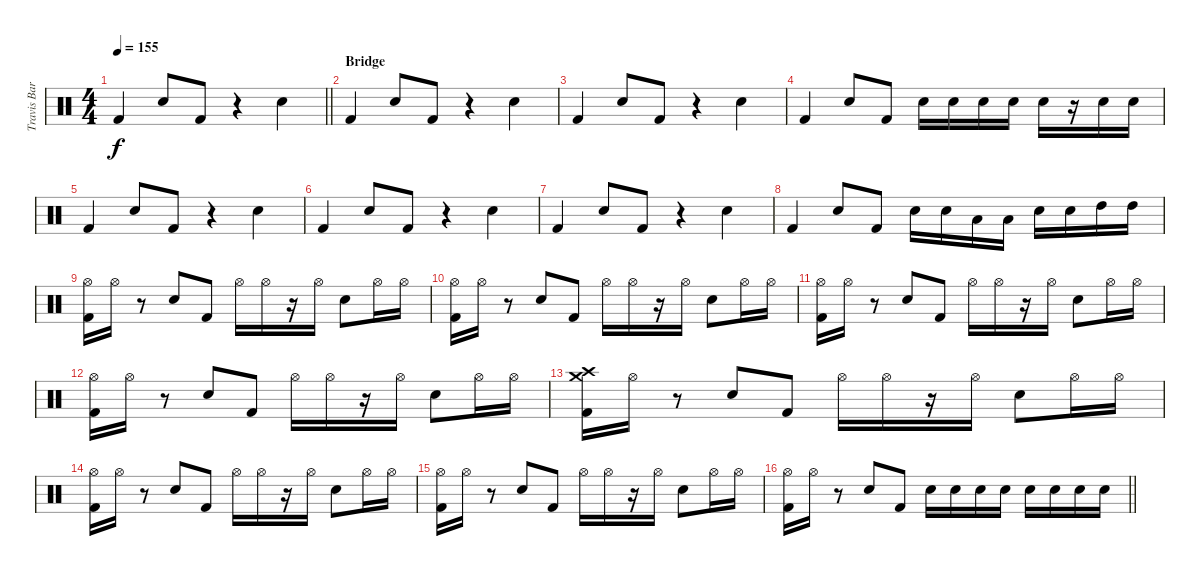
\track ("Travis Barker Drums" "Travis Bar") {mute instrument percussion}
\staff {score}
\articulation defaults
\ts (4 4)
\tempo 155
\clef neutral
\barLineRight lightlight
\ks c "Kick (hit) 2".4{dy f} "Electric Snare (hit)".8 "Kick (hit) 2".8
r.4 "Electric Snare (hit)".4 |
\section ("" "Bridge")
"Kick (hit) 2".4 "Electric Snare (hit)".8 "Kick (hit) 2".8 r.4 "Electric Snare (hit)".4 |
"Kick (hit) 2".4 "Electric Snare (hit)".8 "Kick (hit) 2".8 r.4 "Electric Snare (hit)".4 |
"Kick (hit) 2".4 "Electric Snare (hit)".8 "Kick (hit) 2".8 "Electric Snare (hit)".16 "Electric Snare (hit)".16 "Electric Snare (hit)".16 "Electric Snare (hit)".16 "Electric Snare (hit)".16 r.16 "Electric Snare (hit)".16 "Electric Snare (hit)".16 |
"Kick (hit) 2".4 "Electric Snare (hit)".8 "Kick (hit) 2".8 r.4 "Electric Snare (hit)".4 |
"Kick (hit) 2".4 "Electric Snare (hit)".8 "Kick (hit) 2".8 r.4 "Electric Snare (hit)".4 |
"Kick (hit) 2".4 "Electric Snare (hit)".8 "Kick (hit) 2".8 r.4 "Electric Snare (hit)".4 |
"Kick (hit) 2".4 "Electric Snare (hit)".8 "Kick (hit) 2".8 "Electric Snare (hit)".16 "Electric Snare (hit)".16 "Low Tom (hit)".16 "Low Tom (hit)".16 "Electric Snare (hit)".16 "Electric Snare (hit)".16 "High Tom (hit)".16 "High Tom (hit)".16 |
("Hi-Hat (open)" "Kick (hit) 2").16 "Hi-Hat (open)".16 r.8 "Electric Snare (hit)".8 "Kick (hit) 2".8 "Hi-Hat (open)".16 "Hi-Hat (open)".16 r.16 "Hi-Hat (open)".16 "Electric Snare (hit)".8 "Hi-Hat (open)".16 "Hi-Hat (open)".16 |
("Hi-Hat (open)" "Kick (hit) 2").16 "Hi-Hat (open)".16 r.8 "Electric Snare (hit)".8 "Kick (hit) 2".8 "Hi-Hat (open)".16 "Hi-Hat (open)".16 r.16 "Hi-Hat (open)".16 "Electric Snare (hit)".8 "Hi-Hat (open)".16 "Hi-Hat (open)".16 |
("Hi-Hat (open)" "Kick (hit) 2").16 "Hi-Hat (open)".16 r.8 "Electric Snare (hit)".8 "Kick (hit) 2".8 "Hi-Hat (open)".16 "Hi-Hat (open)".16 r.16 "Hi-Hat (open)".16 "Electric Snare (hit)".8 "Hi-Hat (open)".16 "Hi-Hat (open)".16 |
("Hi-Hat (open)" "Kick (hit) 2").16 "Hi-Hat (open)".16 r.8 "Electric Snare (hit)".8 "Kick (hit) 2".8 "Hi-Hat (open)".16 "Hi-Hat (open)".16 r.16 "Hi-Hat (open)".16 "Electric Snare (hit)".8 "Hi-Hat (open)".16 "Hi-Hat (open)".16 |
("Crash medium (hit)" "Crash high (hit)" "Kick (hit) 2").16 "Hi-Hat (open)".16 r.8 "Electric Snare (hit)".8 "Kick (hit) 2".8 "Hi-Hat (open)".16 "Hi-Hat (open)".16 r.16 "Hi-Hat (open)".16 "Electric Snare (hit)".8 "Hi-Hat (open)".16 "Hi-Hat (open)".16 |
("Hi-Hat (open)" "Kick (hit) 2").16 "Hi-Hat (open)".16 r.8 "Electric Snare (hit)".8 "Kick (hit) 2".8 "Hi-Hat (open)".16 "Hi-Hat (open)".16 r.16 "Hi-Hat (open)".16 "Electric Snare (hit)".8 "Hi-Hat (open)".16 "Hi-Hat (open)".16 |
("Hi-Hat (open)" "Kick (hit) 2").16 "Hi-Hat (open)".16 r.8 "Electric Snare (hit)".8 "Kick (hit) 2".8 "Hi-Hat (open)".16 "Hi-Hat (open)".16 r.16 "Hi-Hat (open)".16 "Electric Snare (hit)".8 "Hi-Hat (open)".16 "Hi-Hat (open)".16 |
\barLineRight lightlight
("Hi-Hat (open)" "Kick (hit) 2").16 "Hi-Hat (open)".16 r.8 "Electric Snare (hit)".8 "Kick (hit) 2".8 "Electric Snare (hit)".16 "Electric Snare (hit)".16 "Electric Snare (hit)".16 "Electric Snare (hit)".16 "Electric Snare (hit)".16 "Electric Snare (hit)".16 "Electric Snare (hit)".16 "Electric Snare (hit)".16
